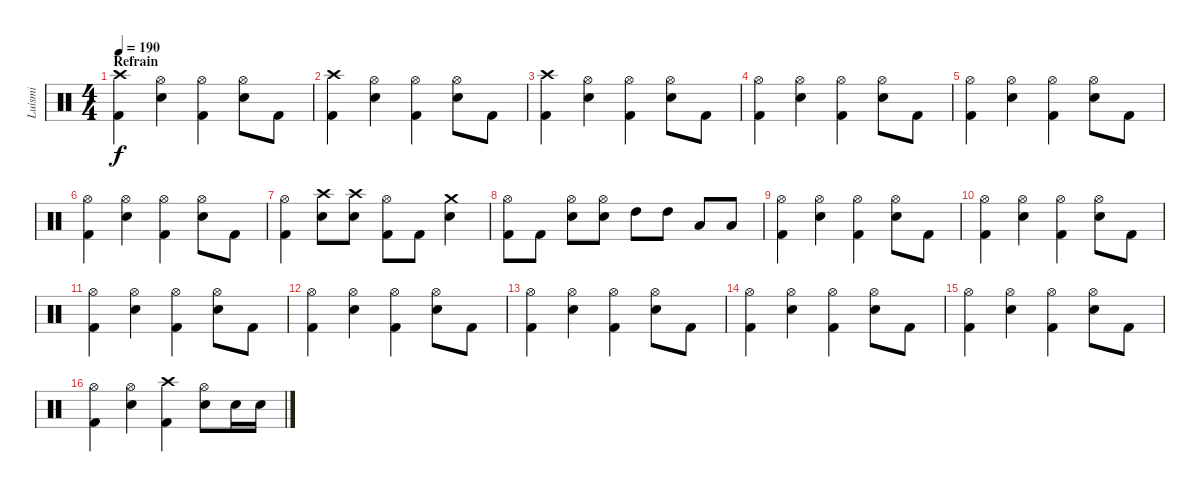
\track ("Luismi" "Luismi") {instrument percussion}
\staff {score}
\articulation defaults
\ts (4 4)
\section ("" "Refrain")
\tempo 190
\clef neutral
\ks c
("Crash high (hit)" "Kick (hit) 2").4{dy f} ("Hi-Hat (open)" "Electric Snare (hit)").4 ("Hi-Hat (open)" "Kick (hit) 2").4 ("Hi-Hat (open)" "Electric Snare (hit)").8 "Kick (hit) 2".8 |
("Crash high (hit)" "Kick (hit) 2").4 ("Hi-Hat (open)" "Electric Snare (hit)").4 ("Hi-Hat (open)" "Kick (hit) 2").4 ("Hi-Hat (open)" "Electric Snare (hit)").8 "Kick (hit) 2".8 |
("Crash high (hit)" "Kick (hit) 2").4 ("Hi-Hat (open)" "Electric Snare (hit)").4 ("Hi-Hat (open)" "Kick (hit) 2").4 ("Hi-Hat (open)" "Electric Snare (hit)").8 "Kick (hit) 2".8 |
("Hi-Hat (open)" "Kick (hit) 2").4 ("Hi-Hat (open)" "Electric Snare (hit)").4 ("Hi-Hat (open)" "Kick (hit) 2").4 ("Hi-Hat (open)" "Electric Snare (hit)").8 "Kick (hit) 2".8 |
("Hi-Hat (open)" "Kick (hit) 2").4 ("Hi-Hat (open)" "Electric Snare (hit)").4 ("Hi-Hat (open)" "Kick (hit) 2").4 ("Hi-Hat (open)" "Electric Snare (hit)").8 "Kick (hit) 2".8 |
("Hi-Hat (open)" "Kick (hit) 2").4 ("Hi-Hat (open)" "Electric Snare (hit)").4 ("Hi-Hat (open)" "Kick (hit) 2").4 ("Hi-Hat (open)" "Electric Snare (hit)").8 "Kick (hit) 2".8 |
("Hi-Hat (open)" "Kick (hit) 2").4 ("Crash high (hit)" "Electric Snare (hit)").8 ("Crash high (hit)" "Electric Snare (hit)").8 ("Hi-Hat (open)" "Kick (hit) 2").8 "Kick (hit) 2".8 ("Crash medium (hit)" "Electric Snare (hit)").4 |
("Hi-Hat (open)" "Kick (hit) 2").8 "Kick (hit) 2".8 ("Hi-Hat (open)" "Electric Snare (hit)").8 ("Hi-Hat (open)" "Electric Snare (hit)").8 "High Tom (hit)".8 "High Tom (hit)".8 "Low Tom (hit)".8 "Low Tom (hit)".8 |
("Hi-Hat (open)" "Kick (hit) 2").4 ("Hi-Hat (open)" "Electric Snare (hit)").4 ("Hi-Hat (open)" "Kick (hit) 2").4 ("Hi-Hat (open)" "Electric Snare (hit)").8 "Kick (hit) 2".8 |
("Hi-Hat (open)" "Kick (hit) 2").4 ("Hi-Hat (open)" "Electric Snare (hit)").4 ("Hi-Hat (open)" "Kick (hit) 2").4 ("Hi-Hat (open)" "Electric Snare (hit)").8 "Kick (hit) 2".8 |
("Hi-Hat (open)" "Kick (hit) 2").4 ("Hi-Hat (open)" "Electric Snare (hit)").4 ("Hi-Hat (open)" "Kick (hit) 2").4 ("Hi-Hat (open)" "Electric Snare (hit)").8 "Kick (hit) 2".8 |
("Hi-Hat (open)" "Kick (hit) 2").4 ("Hi-Hat (open)" "Electric Snare (hit)").4 ("Hi-Hat (open)" "Kick (hit) 2").4 ("Hi-Hat (open)" "Electric Snare (hit)").8 "Kick (hit) 2".8 |
("Hi-Hat (open)" "Kick (hit) 2").4 ("Hi-Hat (open)" "Electric Snare (hit)").4 ("Hi-Hat (open)" "Kick (hit) 2").4 ("Hi-Hat (open)" "Electric Snare (hit)").8 "Kick (hit) 2".8 |
("Hi-Hat (open)" "Kick (hit) 2").4 ("Hi-Hat (open)" "Electric Snare (hit)").4 ("Hi-Hat (open)" "Kick (hit) 2").4 ("Hi-Hat (open)" "Electric Snare (hit)").8 "Kick (hit) 2".8 |
("Hi-Hat (open)" "Kick (hit) 2").4 ("Hi-Hat (open)" "Electric Snare (hit)").4 ("Hi-Hat (open)" "Kick (hit) 2").4 ("Hi-Hat (open)" "Electric Snare (hit)").8 "Kick (hit) 2".8 |
("Hi-Hat (open)" "Kick (hit) 2").4 ("Hi-Hat (open)" "Electric Snare (hit)").4 ("Crash high (hit)" "Kick (hit) 2").4 ("Hi-Hat (open)" "Electric Snare (hit)").8 "Electric Snare (hit)".16 "Electric Snare (hit)".16
